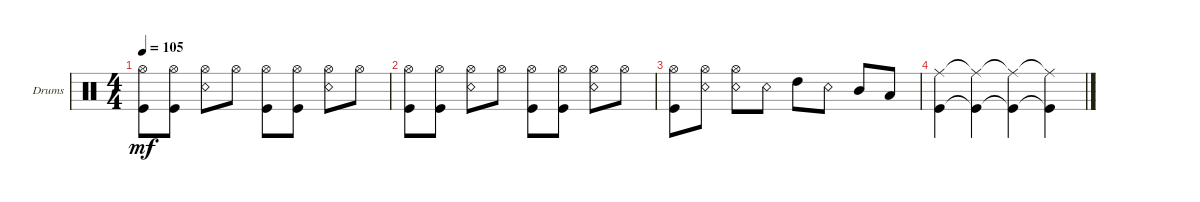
\bracketExtendMode groupsimilarinstruments
\firstSystemTrackNameOrientation horizontal
\otherSystemsTrackNameOrientation horizontal
\track ("Алексей Мещеряков" "Drums") {instrument percussion}
\staff {score}
\articulation defaults
\ts (4 4)
\tempo 105
\clef neutral
\ks c
("Kick (hit)" "Hi-Hat (open)").8{dy mf} ("Kick (hit)" "Hi-Hat (open)").8 ("Snare (rim shot)" "Hi-Hat (open)").8 "Hi-Hat (open)".8 ("Kick (hit)" "Hi-Hat (open)").8 ("Kick (hit)" "Hi-Hat (open)").8 ("Snare (rim shot)" "Hi-Hat (open)").8 "Hi-Hat (open)".8 |
("Kick (hit)" "Hi-Hat (open)").8 ("Kick (hit)" "Hi-Hat (open)").8 ("Snare (rim shot)" "Hi-Hat (open)").8 "Hi-Hat (open)".8 ("Kick (hit)" "Hi-Hat (open)").8 ("Kick (hit)" "Hi-Hat (open)").8 ("Snare (rim shot)" "Hi-Hat (open)").8 "Hi-Hat (open)".8 |
("Kick (hit)" "Hi-Hat (open)").8 ("Hi-Hat (open)" "Snare (rim shot)").8 ("Snare (rim shot)" "Hi-Hat (open)").8 "Snare (rim shot)".8 "High Tom (hit)".8 "Snare (rim shot)".8 "Mid Tom (hit)".8 "Low Tom (hit)".8 |
("Ride (middle)" "Kick (hit)").4 ("Ride (middle)"{t} "Kick (hit)"{t}).4 ("Ride (middle)"{t} "Kick (hit)"{t}).4 ("Ride (middle)"{t} "Kick (hit)"{t}).4
